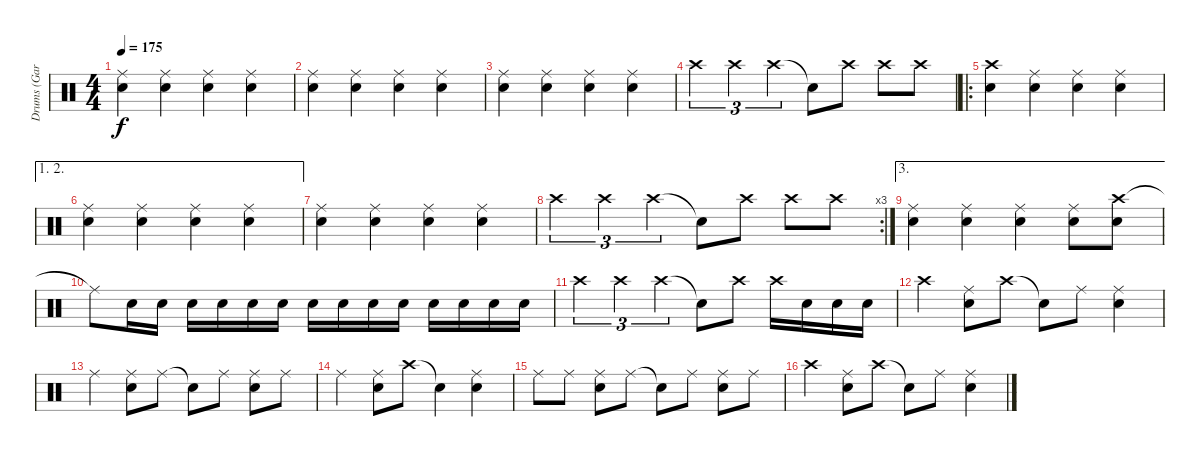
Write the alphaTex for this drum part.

\track ("Drums (Gar Samuelson)" "Drums (Gar") {instrument percussion}
\staff {score}
\articulation defaults
\ts (4 4)
\tempo 175
\clef neutral
\ks c
("Ride (middle)" "Snare (hit) 2").4{dy f} ("Ride (middle)" "Snare (hit) 2").4 ("Ride (middle)" "Snare (hit) 2").4 ("Ride (middle)" "Snare (hit) 2").4 |
("Ride (middle)" "Snare (hit) 2").4 ("Ride (middle)" "Snare (hit) 2").4 ("Ride (middle)" "Snare (hit) 2").4 ("Ride (middle)" "Snare (hit) 2").4 |
("Ride (middle)" "Snare (hit) 2").4 ("Ride (middle)" "Snare (hit) 2").4 ("Ride (middle)" "Snare (hit) 2").4 ("Ride (middle)" "Snare (hit) 2").4 |
"Crash high (hit)".4{tu (3 2)} "Crash high (hit)".4{tu (3 2)} "Crash high (hit)".4{tu (3 2)} "Snare (hit)"{t}.8 "Crash high (hit)".8 "Crash high (hit)".8 "Crash high (hit)".8 |
\ro
("Crash high (hit)" "Snare (hit) 2").4 ("Ride (middle)" "Snare (hit) 2").4 ("Ride (middle)" "Snare (hit) 2").4 ("Ride (middle)" "Snare (hit) 2").4 |
\ae (1 2)
("Ride (middle)" "Snare (hit) 2").4 ("Ride (middle)" "Snare (hit) 2").4 ("Ride (middle)" "Snare (hit) 2").4 ("Ride (middle)" "Snare (hit) 2").4 |
("Ride (middle)" "Snare (hit) 2").4 ("Ride (middle)" "Snare (hit) 2").4 ("Ride (middle)" "Snare (hit) 2").4 ("Ride (middle)" "Snare (hit) 2").4 |
\rc 3 "Crash high (hit)".4{tu (3 2)} "Crash high (hit)".4{tu (3 2)} "Crash high (hit)".4{tu (3 2)} "Snare (hit)"{t}.8 "Crash high (hit)".8 "Crash high (hit)".8 "Crash high (hit)".8
|
\ae 3
("Ride (middle)" "Snare (hit) 2").4 ("Ride (middle)" "Snare (hit) 2").4 ("Ride (middle)" "Snare (hit) 2").4 ("Ride (middle)" "Snare (hit) 2").8 ("Crash high (hit)" "Snare (hit) 2").8 |
"Ride (middle)"{t}.8 "Snare (hit) 2".16 "Snare (hit) 2".16 "Snare (hit) 2".16 "Snare (hit) 2".16 "Snare (hit) 2".16 "Snare (hit) 2".16 "Snare (hit) 2".16 "Snare (hit) 2".16 "Snare (hit) 2".16 "Snare (hit) 2".16 "Snare (hit) 2".16 "Snare (hit) 2".16 "Snare (hit) 2".16 "Snare (hit) 2".16 |
"Crash high (hit)".4{tu (3 2)} "Crash high (hit)".4{tu (3 2)} "Crash high (hit)".4{tu (3 2)} "Snare (hit)"{t}.8 "Crash high (hit)".8 "Crash high (hit)".16 "Snare (hit) 2".16 "Snare (hit) 2".16 "Snare (hit) 2".16 |
"Crash high (hit)".4 ("Ride (middle)" "Snare (hit) 2").8 "Crash high (hit)".8 "Snare (hit)"{t}.8 "Ride (middle)".8 ("Ride (middle)" "Snare (hit) 2").4 |
"Ride (middle)".4 ("Ride (middle)" "Snare (hit) 2").8 "Ride (middle)".8 "Snare (hit)"{t}.8 "Ride (middle)".8 ("Ride (middle)" "Snare (hit) 2").8 "Ride (middle)".8 |
"Ride (middle)".4 ("Ride (middle)" "Snare (hit) 2").8 "Crash high (hit)".8 "Snare (hit)"{t}.4 ("Ride (middle)" "Snare (hit) 2").4 |
"Ride (middle)".8 "Ride (middle)".8 ("Ride (middle)" "Snare (hit) 2").8 "Ride (middle)".8 "Snare (hit)"{t}.8 "Ride (middle)".8 ("Ride (middle)" "Snare (hit) 2").8 "Ride (middle)".8 |
"Crash high (hit)".4 ("Ride (middle)" "Snare (hit) 2").8 "Crash high (hit)".8 "Snare (hit)"{t}.8 "Ride (middle)".8 ("Ride (middle)" "Snare (hit) 2").4
